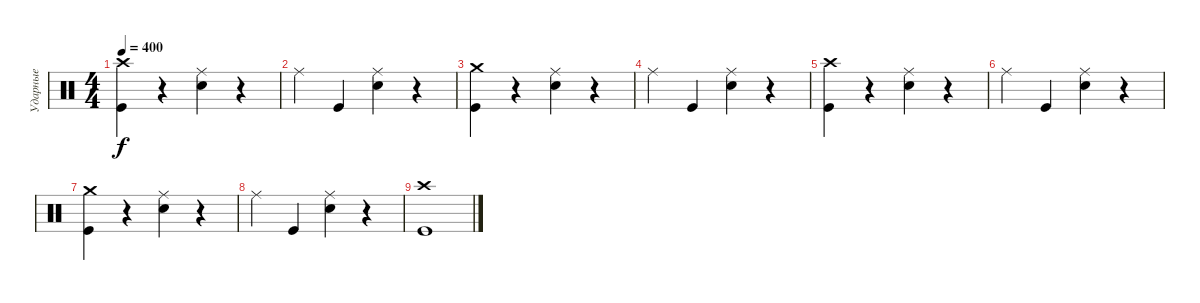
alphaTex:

\track ("Ударные" "Ударные") {instrument percussion}
\staff {score}
\articulation defaults
\ts (4 4)
\tempo 400
\clef neutral
\ks c
("Kick (hit)" "Crash high (hit)").4{dy f} r.4 ("Snare (hit) 2" "Ride (middle)").4 r.4 |
"Ride (middle)".4 "Kick (hit)".4 ("Snare (hit) 2" "Ride (middle)").4 r.4 |
("Kick (hit)" "Crash medium (hit)").4 r.4 ("Snare (hit) 2" "Ride (middle)").4 r.4 |
"Ride (middle)".4 "Kick (hit)".4 ("Snare (hit) 2" "Ride (middle)").4 r.4 |
("Kick (hit)" "Crash high (hit)").4 r.4 ("Snare (hit) 2" "Ride (middle)").4 r.4 |
"Ride (middle)".4 "Kick (hit)".4 ("Snare (hit) 2" "Ride (middle)").4 r.4 |
("Kick (hit)" "Crash medium (hit)").4 r.4 ("Snare (hit) 2" "Ride (middle)").4 r.4 |
"Ride (middle)".4 "Kick (hit)".4 ("Snare (hit) 2" "Ride (middle)").4 r.4 |
("Kick (hit)" "Crash high (hit)").1
